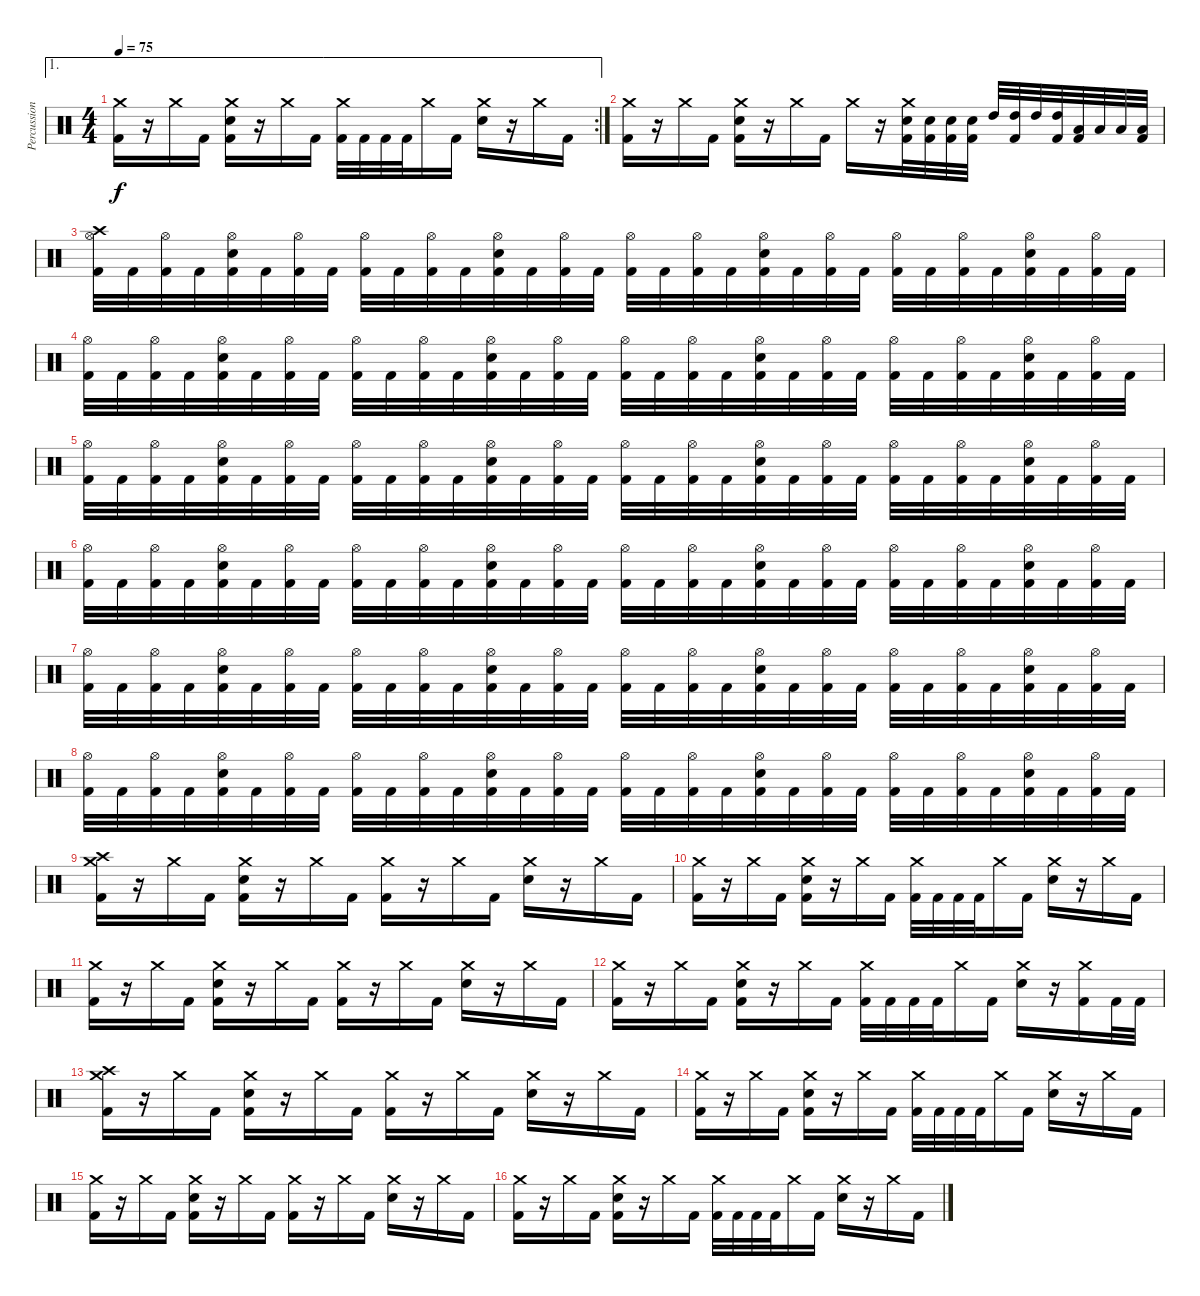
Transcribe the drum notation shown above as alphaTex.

\track ("Percussions" "Percussion") {instrument percussion}
\staff {score}
\articulation defaults
\ae 1
\rc 2
\ts (4 4)
\tempo 75
\clef neutral
\ks c
("Crash medium (hit)" "Kick (hit) 2").16{dy f} r.16 "Crash medium (hit)".16 "Kick (hit) 2".16 ("Crash medium (hit)" "Snare (hit) 2" "Kick (hit) 2").16 r.16 "Crash medium (hit)".16 "Kick (hit) 2".16 ("Crash medium (hit)" "Kick (hit) 2").32 "Kick (hit) 2".32 "Kick (hit) 2".32 "Kick (hit) 2".32 "Crash medium (hit)".16 "Kick (hit) 2".16 ("Crash medium (hit)" "Snare (hit) 2").16 r.16 "Crash medium (hit)".16 "Kick (hit) 2".16 |
("Crash medium (hit)" "Kick (hit) 2").16 r.16 "Crash medium (hit)".16 "Kick (hit) 2".16 ("Crash medium (hit)" "Snare (hit) 2" "Kick (hit) 2").16 r.16 "Crash medium (hit)".16 "Kick (hit) 2".16 "Crash medium (hit)".16 r.16 ("Crash medium (hit)" "Snare (hit) 2" "Kick (hit) 2").32 ("Snare (hit) 2" "Kick (hit) 2").32 ("Snare (hit) 2" "Kick (hit) 2").32 ("Snare (hit) 2" "Kick (hit) 2").32 "High Tom (hit)".32 ("High Tom (hit)" "Kick (hit) 2").32 "High Tom (hit)".32 ("High Tom (hit)" "Kick (hit) 2").32 ("Low Tom (hit)" "Kick (hit) 2").32 "Low Tom (hit)".32 "Low Tom (hit)".32 ("Low Tom (hit)" "Kick (hit) 2").32 |
("Crash high (hit)" "Hi-Hat (open)" "Kick (hit) 2").32 "Kick (hit) 2".32 ("Hi-Hat (open)" "Kick (hit) 2").32 "Kick (hit) 2".32 ("Hi-Hat (open)" "Snare (hit) 2" "Kick (hit) 2").32 "Kick (hit) 2".32 ("Hi-Hat (open)" "Kick (hit) 2").32 "Kick (hit) 2".32 ("Hi-Hat (open)" "Kick (hit) 2").32 "Kick (hit) 2".32 ("Hi-Hat (open)" "Kick (hit) 2").32 "Kick (hit) 2".32 ("Hi-Hat (open)" "Snare (hit) 2" "Kick (hit) 2").32 "Kick (hit) 2".32 ("Hi-Hat (open)" "Kick (hit) 2").32 "Kick (hit) 2".32 ("Hi-Hat (open)" "Kick (hit) 2").32 "Kick (hit) 2".32 ("Hi-Hat (open)" "Kick (hit) 2").32 "Kick (hit) 2".32 ("Hi-Hat (open)" "Snare (hit) 2" "Kick (hit) 2").32 "Kick (hit) 2".32 ("Hi-Hat (open)" "Kick (hit) 2").32 "Kick (hit) 2".32 ("Hi-Hat (open)" "Kick (hit) 2").32 "Kick (hit) 2".32 ("Hi-Hat (open)" "Kick (hit) 2").32 "Kick (hit) 2".32 ("Hi-Hat (open)" "Snare (hit) 2" "Kick (hit) 2").32 "Kick (hit) 2".32 ("Hi-Hat (open)" "Kick (hit) 2").32 "Kick (hit) 2".32 |
("Hi-Hat (open)" "Kick (hit) 2").32 "Kick (hit) 2".32 ("Hi-Hat (open)" "Kick (hit) 2").32 "Kick (hit) 2".32 ("Hi-Hat (open)" "Snare (hit) 2" "Kick (hit) 2").32 "Kick (hit) 2".32 ("Hi-Hat (open)" "Kick (hit) 2").32 "Kick (hit) 2".32 ("Hi-Hat (open)" "Kick (hit) 2").32 "Kick (hit) 2".32 ("Hi-Hat (open)" "Kick (hit) 2").32 "Kick (hit) 2".32 ("Hi-Hat (open)" "Snare (hit) 2" "Kick (hit) 2").32 "Kick (hit) 2".32 ("Hi-Hat (open)" "Kick (hit) 2").32 "Kick (hit) 2".32 ("Hi-Hat (open)" "Kick (hit) 2").32 "Kick (hit) 2".32 ("Hi-Hat (open)" "Kick (hit) 2").32 "Kick (hit) 2".32 ("Hi-Hat (open)" "Snare (hit) 2" "Kick (hit) 2").32 "Kick (hit) 2".32 ("Hi-Hat (open)" "Kick (hit) 2").32 "Kick (hit) 2".32 ("Hi-Hat (open)" "Kick (hit) 2").32 "Kick (hit) 2".32 ("Hi-Hat (open)" "Kick (hit) 2").32 "Kick (hit) 2".32 ("Hi-Hat (open)" "Snare (hit) 2" "Kick (hit) 2").32 "Kick (hit) 2".32 ("Hi-Hat (open)" "Kick (hit) 2").32 "Kick (hit) 2".32 |
("Hi-Hat (open)" "Kick (hit) 2").32 "Kick (hit) 2".32 ("Hi-Hat (open)" "Kick (hit) 2").32 "Kick (hit) 2".32 ("Hi-Hat (open)" "Snare (hit) 2" "Kick (hit) 2").32 "Kick (hit) 2".32 ("Hi-Hat (open)" "Kick (hit) 2").32 "Kick (hit) 2".32 ("Hi-Hat (open)" "Kick (hit) 2").32 "Kick (hit) 2".32 ("Hi-Hat (open)" "Kick (hit) 2").32 "Kick (hit) 2".32 ("Hi-Hat (open)" "Snare (hit) 2" "Kick (hit) 2").32 "Kick (hit) 2".32 ("Hi-Hat (open)" "Kick (hit) 2").32 "Kick (hit) 2".32 ("Hi-Hat (open)" "Kick (hit) 2").32 "Kick (hit) 2".32 ("Hi-Hat (open)" "Kick (hit) 2").32 "Kick (hit) 2".32 ("Hi-Hat (open)" "Snare (hit) 2" "Kick (hit) 2").32 "Kick (hit) 2".32 ("Hi-Hat (open)" "Kick (hit) 2").32 "Kick (hit) 2".32 ("Hi-Hat (open)" "Kick (hit) 2").32 "Kick (hit) 2".32 ("Hi-Hat (open)" "Kick (hit) 2").32 "Kick (hit) 2".32 ("Hi-Hat (open)" "Snare (hit) 2" "Kick (hit) 2").32 "Kick (hit) 2".32 ("Hi-Hat (open)" "Kick (hit) 2").32 "Kick (hit) 2".32 |
("Hi-Hat (open)" "Kick (hit) 2").32 "Kick (hit) 2".32 ("Hi-Hat (open)" "Kick (hit) 2").32 "Kick (hit) 2".32 ("Hi-Hat (open)" "Snare (hit) 2" "Kick (hit) 2").32 "Kick (hit) 2".32 ("Hi-Hat (open)" "Kick (hit) 2").32 "Kick (hit) 2".32 ("Hi-Hat (open)" "Kick (hit) 2").32 "Kick (hit) 2".32 ("Hi-Hat (open)" "Kick (hit) 2").32 "Kick (hit) 2".32 ("Hi-Hat (open)" "Snare (hit) 2" "Kick (hit) 2").32 "Kick (hit) 2".32 ("Hi-Hat (open)" "Kick (hit) 2").32 "Kick (hit) 2".32 ("Hi-Hat (open)" "Kick (hit) 2").32 "Kick (hit) 2".32 ("Hi-Hat (open)" "Kick (hit) 2").32 "Kick (hit) 2".32 ("Hi-Hat (open)" "Snare (hit) 2" "Kick (hit) 2").32 "Kick (hit) 2".32 ("Hi-Hat (open)" "Kick (hit) 2").32 "Kick (hit) 2".32 ("Hi-Hat (open)" "Kick (hit) 2").32 "Kick (hit) 2".32 ("Hi-Hat (open)" "Kick (hit) 2").32 "Kick (hit) 2".32 ("Hi-Hat (open)" "Snare (hit) 2" "Kick (hit) 2").32 "Kick (hit) 2".32 ("Hi-Hat (open)" "Kick (hit) 2").32 "Kick (hit) 2".32 |
("Hi-Hat (open)" "Kick (hit) 2").32 "Kick (hit) 2".32 ("Hi-Hat (open)" "Kick (hit) 2").32 "Kick (hit) 2".32 ("Hi-Hat (open)" "Snare (hit) 2" "Kick (hit) 2").32 "Kick (hit) 2".32 ("Hi-Hat (open)" "Kick (hit) 2").32 "Kick (hit) 2".32 ("Hi-Hat (open)" "Kick (hit) 2").32 "Kick (hit) 2".32 ("Hi-Hat (open)" "Kick (hit) 2").32 "Kick (hit) 2".32 ("Hi-Hat (open)" "Snare (hit) 2" "Kick (hit) 2").32 "Kick (hit) 2".32 ("Hi-Hat (open)" "Kick (hit) 2").32 "Kick (hit) 2".32 ("Hi-Hat (open)" "Kick (hit) 2").32 "Kick (hit) 2".32 ("Hi-Hat (open)" "Kick (hit) 2").32 "Kick (hit) 2".32 ("Hi-Hat (open)" "Snare (hit) 2" "Kick (hit) 2").32 "Kick (hit) 2".32 ("Hi-Hat (open)" "Kick (hit) 2").32 "Kick (hit) 2".32 ("Hi-Hat (open)" "Kick (hit) 2").32 "Kick (hit) 2".32 ("Hi-Hat (open)" "Kick (hit) 2").32 "Kick (hit) 2".32 ("Hi-Hat (open)" "Snare (hit) 2" "Kick (hit) 2").32 "Kick (hit) 2".32 ("Hi-Hat (open)" "Kick (hit) 2").32 "Kick (hit) 2".32 |
("Hi-Hat (open)" "Kick (hit) 2").32 "Kick (hit) 2".32 ("Hi-Hat (open)" "Kick (hit) 2").32 "Kick (hit) 2".32 ("Hi-Hat (open)" "Snare (hit) 2" "Kick (hit) 2").32 "Kick (hit) 2".32 ("Hi-Hat (open)" "Kick (hit) 2").32 "Kick (hit) 2".32 ("Hi-Hat (open)" "Kick (hit) 2").32 "Kick (hit) 2".32 ("Hi-Hat (open)" "Kick (hit) 2").32 "Kick (hit) 2".32 ("Hi-Hat (open)" "Snare (hit) 2" "Kick (hit) 2").32 "Kick (hit) 2".32 ("Hi-Hat (open)" "Kick (hit) 2").32 "Kick (hit) 2".32 ("Hi-Hat (open)" "Kick (hit) 2").32 "Kick (hit) 2".32 ("Hi-Hat (open)" "Kick (hit) 2").32 "Kick (hit) 2".32 ("Hi-Hat (open)" "Snare (hit) 2" "Kick (hit) 2").32 "Kick (hit) 2".32 ("Hi-Hat (open)" "Kick (hit) 2").32 "Kick (hit) 2".32 ("Hi-Hat (open)" "Kick (hit) 2").32 "Kick (hit) 2".32 ("Hi-Hat (open)" "Kick (hit) 2").32 "Kick (hit) 2".32 ("Hi-Hat (open)" "Snare (hit) 2" "Kick (hit) 2").32 "Kick (hit) 2".32 ("Hi-Hat (open)" "Kick (hit) 2").32 "Kick (hit) 2".32 |
("Crash high (hit)" "Crash medium (hit)" "Kick (hit) 2").16 r.16 "Crash medium (hit)".16 "Kick (hit) 2".16 ("Crash medium (hit)" "Snare (hit) 2" "Kick (hit) 2").16 r.16 "Crash medium (hit)".16 "Kick (hit) 2".16 ("Crash medium (hit)" "Kick (hit) 2").16 r.16 "Crash medium (hit)".16 "Kick (hit) 2".16 ("Crash medium (hit)" "Snare (hit) 2").16 r.16 "Crash medium (hit)".16 "Kick (hit) 2".16 |
("Crash medium (hit)" "Kick (hit) 2").16 r.16 "Crash medium (hit)".16 "Kick (hit) 2".16 ("Crash medium (hit)" "Snare (hit) 2" "Kick (hit) 2").16 r.16 "Crash medium (hit)".16 "Kick (hit) 2".16 ("Crash medium (hit)" "Kick (hit) 2").32 "Kick (hit) 2".32 "Kick (hit) 2".32 "Kick (hit) 2".32 "Crash medium (hit)".16 "Kick (hit) 2".16 ("Crash medium (hit)" "Snare (hit) 2").16 r.16 "Crash medium (hit)".16 "Kick (hit) 2".16 |
("Crash medium (hit)" "Kick (hit) 2").16 r.16 "Crash medium (hit)".16 "Kick (hit) 2".16 ("Crash medium (hit)" "Snare (hit) 2" "Kick (hit) 2").16 r.16 "Crash medium (hit)".16 "Kick (hit) 2".16 ("Crash medium (hit)" "Kick (hit) 2").16 r.16 "Crash medium (hit)".16 "Kick (hit) 2".16 ("Crash medium (hit)" "Snare (hit) 2").16 r.16 "Crash medium (hit)".16 "Kick (hit) 2".16 |
("Crash medium (hit)" "Kick (hit) 2").16 r.16 "Crash medium (hit)".16 "Kick (hit) 2".16 ("Crash medium (hit)" "Snare (hit) 2" "Kick (hit) 2").16 r.16 "Crash medium (hit)".16 "Kick (hit) 2".16 ("Crash medium (hit)" "Kick (hit) 2").32 "Kick (hit) 2".32 "Kick (hit) 2".32 "Kick (hit) 2".32 "Crash medium (hit)".16 "Kick (hit) 2".16 ("Crash medium (hit)" "Snare (hit) 2").16 r.16 ("Crash medium (hit)" "Kick (hit) 2").16 "Kick (hit) 2".32 "Kick (hit) 2".32 |
("Crash high (hit)" "Crash medium (hit)" "Kick (hit) 2").16 r.16 "Crash medium (hit)".16 "Kick (hit) 2".16 ("Crash medium (hit)" "Snare (hit) 2" "Kick (hit) 2").16 r.16 "Crash medium (hit)".16 "Kick (hit) 2".16 ("Crash medium (hit)" "Kick (hit) 2").16 r.16 "Crash medium (hit)".16 "Kick (hit) 2".16 ("Crash medium (hit)" "Snare (hit) 2").16 r.16 "Crash medium (hit)".16 "Kick (hit) 2".16 |
("Crash medium (hit)" "Kick (hit) 2").16 r.16 "Crash medium (hit)".16 "Kick (hit) 2".16 ("Crash medium (hit)" "Snare (hit) 2" "Kick (hit) 2").16 r.16 "Crash medium (hit)".16 "Kick (hit) 2".16 ("Crash medium (hit)" "Kick (hit) 2").32 "Kick (hit) 2".32 "Kick (hit) 2".32 "Kick (hit) 2".32 "Crash medium (hit)".16 "Kick (hit) 2".16 ("Crash medium (hit)" "Snare (hit) 2").16 r.16 "Crash medium (hit)".16 "Kick (hit) 2".16 |
("Crash medium (hit)" "Kick (hit) 2").16 r.16 "Crash medium (hit)".16 "Kick (hit) 2".16 ("Crash medium (hit)" "Snare (hit) 2" "Kick (hit) 2").16 r.16 "Crash medium (hit)".16 "Kick (hit) 2".16 ("Crash medium (hit)" "Kick (hit) 2").16 r.16 "Crash medium (hit)".16 "Kick (hit) 2".16 ("Crash medium (hit)" "Snare (hit) 2").16 r.16 "Crash medium (hit)".16 "Kick (hit) 2".16 |
("Crash medium (hit)" "Kick (hit) 2").16 r.16 "Crash medium (hit)".16 "Kick (hit) 2".16 ("Crash medium (hit)" "Snare (hit) 2" "Kick (hit) 2").16 r.16 "Crash medium (hit)".16 "Kick (hit) 2".16 ("Crash medium (hit)" "Kick (hit) 2").32 "Kick (hit) 2".32 "Kick (hit) 2".32 "Kick (hit) 2".32 "Crash medium (hit)".16 "Kick (hit) 2".16 ("Crash medium (hit)" "Snare (hit) 2").16 r.16 "Crash medium (hit)".16 "Kick (hit) 2".16
